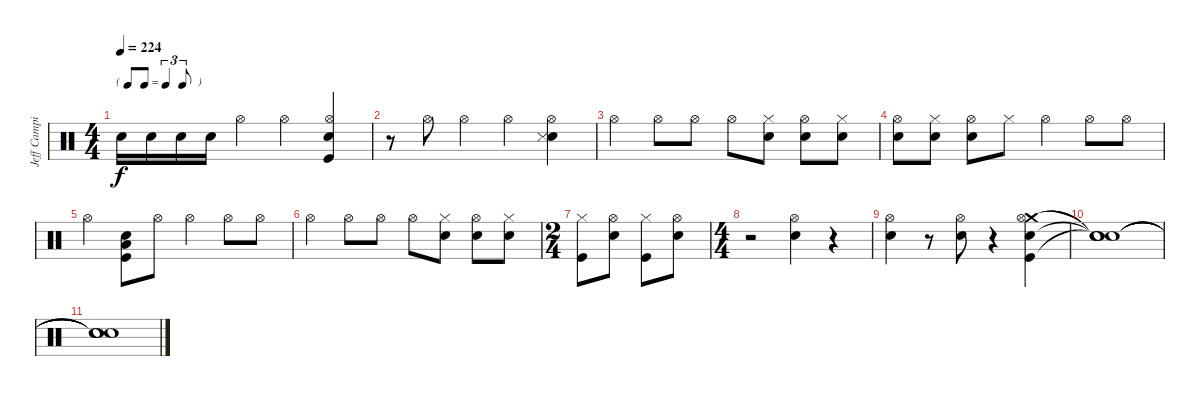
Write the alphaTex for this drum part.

\track ("Jeff Campitelli" "Jeff Campi") {instrument percussion}
\staff {score}
\articulation defaults
\ts (4 4)
\tf triplet8th
\tempo 224
\clef neutral
\ks c "Snare (hit) 2".16{dy f} "Snare (hit) 2".16 "Snare (hit) 2".16 "Snare (hit) 2".16 "Hi-Hat (open)".4 "Hi-Hat (open)".4
("Snare (hit) 2" "Hi-Hat (open)" "Kick (hit)").4 |
r.8 "Hi-Hat (open)".8 "Hi-Hat (open)".4 "Hi-Hat (open)".4 ("Hi-Hat (open)" "Snare (hit) 2" "Metronome (hit)").4 |
"Hi-Hat (open)".4 "Hi-Hat (open)".8 "Hi-Hat (open)".8 "Hi-Hat (open)".8 ("Hi-Hat (closed)" "Snare (hit) 2").8 ("Snare (hit) 2" "Hi-Hat (open)").8 ("Hi-Hat (closed)" "Snare (hit) 2").8 |
("Snare (hit) 2" "Hi-Hat (open)").8 ("Snare (hit) 2" "Hi-Hat (closed)").8 ("Snare (hit) 2" "Hi-Hat (open)").8 "Hi-Hat (closed)".8 "Hi-Hat (open)".4 "Hi-Hat (open)".8 "Hi-Hat (open)".8 |
"Hi-Hat (open)".4 ("Kick (hit)" "Snare (hit) 2" "Low Floor Tom (hit)").8 "Hi-Hat (open)".8 "Hi-Hat (open)".4 "Hi-Hat (open)".8 "Hi-Hat (open)".8 |
"Hi-Hat (open)".4 "Hi-Hat (open)".8 "Hi-Hat (open)".8 "Hi-Hat (open)".8 ("Hi-Hat (closed)" "Snare (hit) 2").8 ("Snare (hit) 2" "Hi-Hat (open)").8 ("Hi-Hat (closed)" "Snare (hit) 2").8 |
\ts (2 4)
("Hi-Hat (closed)" "Kick (hit)").8 ("Snare (hit) 2" "Hi-Hat (open)").8 ("Hi-Hat (closed)" "Kick (hit)").8 ("Snare (hit) 2" "Hi-Hat (open)").8 |
\ts (4 4)
r.2 ("Hi-Hat (open)" "Snare (hit) 2").4 r.4 |
("Snare (hit) 2" "Hi-Hat (open)").4 r.8 ("Snare (hit) 2" "Hi-Hat (open)").8 r.4 ("Crash medium (hit)" "Snare (hit) 2" "Hi-Hat (open)" "Kick (hit)").4 |
("Snare (hit)"{t} "Snare (hit)"{t} "Snare (hit)"{t} "Snare (hit)"{t}).1 |
("Snare (hit)"{t} "Snare (hit)"{t} "Snare (hit)"{t} "Snare (hit)"{t}).1
